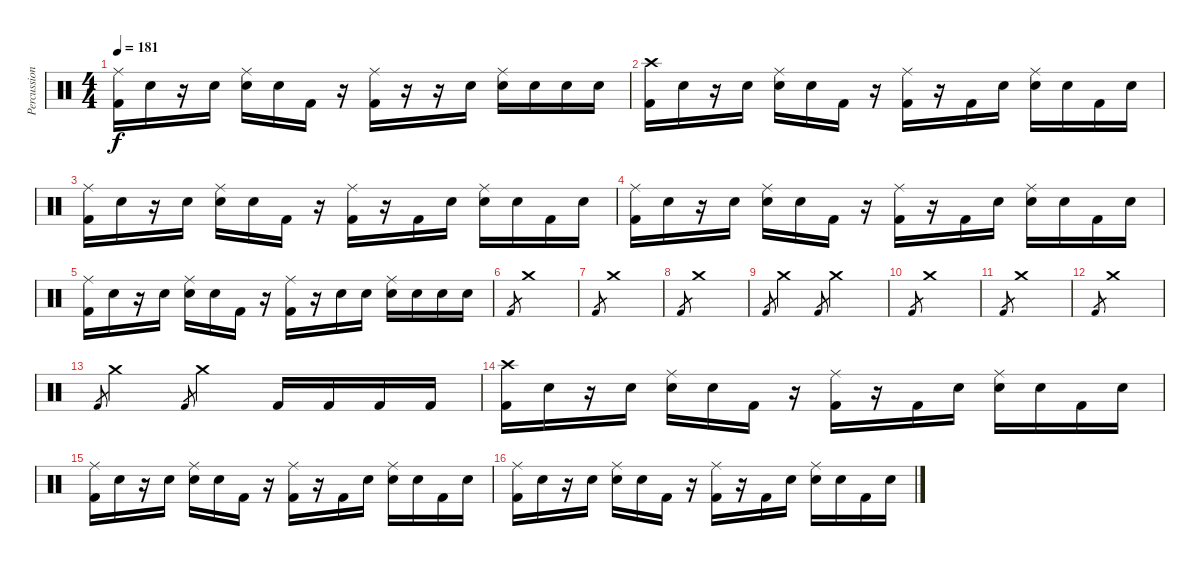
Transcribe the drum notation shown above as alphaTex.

\track ("Percussion" "Percussion") {instrument percussion}
\staff {score}
\articulation defaults
\ts (4 4)
\tempo 181
\clef neutral
\ks c
("Kick (hit) 2" "Ride (middle)").16{dy f} "Snare (hit)"{x}.16 r.16 "Snare (hit)"{x}.16 ("Electric Snare (hit)" "Ride (middle)").16 "Snare (hit)"{x}.16 "Kick (hit) 2".16 r.16 ("Kick (hit) 2" "Ride (middle)").16 r.16 r.16 "Snare (hit)"{x}.16 ("Electric Snare (hit)" "Ride (middle)").16 "Electric Snare (hit)".16 "Electric Snare (hit)".16 "Electric Snare (hit)".16 |
("Kick (hit) 2" "Crash high (hit)").16 "Snare (hit)"{x}.16 r.16 "Snare (hit)"{x}.16 ("Electric Snare (hit)" "Ride (middle)").16 "Snare (hit)"{x}.16 "Kick (hit) 2".16 r.16 ("Kick (hit) 2" "Ride (middle)").16 r.16 "Kick (hit) 2".16 "Snare (hit)"{x}.16 ("Electric Snare (hit)" "Ride (middle)").16 "Snare (hit)"{x}.16 "Kick (hit) 2".16 "Snare (hit)"{x}.16 |
("Kick (hit) 2" "Ride (middle)").16 "Snare (hit)"{x}.16 r.16 "Snare (hit)"{x}.16 ("Electric Snare (hit)" "Ride (middle)").16 "Snare (hit)"{x}.16 "Kick (hit) 2".16 r.16 ("Kick (hit) 2" "Ride (middle)").16 r.16 "Kick (hit) 2".16 "Snare (hit)"{x}.16 ("Electric Snare (hit)" "Ride (middle)").16 "Snare (hit)"{x}.16 "Kick (hit) 2".16 "Snare (hit)"{x}.16 |
("Kick (hit) 2" "Ride (middle)").16 "Snare (hit)"{x}.16 r.16 "Snare (hit)"{x}.16 ("Electric Snare (hit)" "Ride (middle)").16 "Snare (hit)"{x}.16 "Kick (hit) 2".16 r.16 ("Kick (hit) 2" "Ride (middle)").16 r.16 "Kick (hit) 2".16 "Snare (hit)"{x}.16 ("Electric Snare (hit)" "Ride (middle)").16 "Snare (hit)"{x}.16 "Kick (hit) 2".16 "Snare (hit)"{x}.16 |
("Kick (hit) 2" "Ride (middle)").16 "Snare (hit)"{x}.16 r.16 "Snare (hit)"{x}.16 ("Electric Snare (hit)" "Ride (middle)").16 "Snare (hit)"{x}.16 "Kick (hit) 2".16 r.16 ("Kick (hit) 2" "Ride (middle)").16 r.16 "Electric Snare (hit)".16 "Snare (hit)"{x}.16 ("Electric Snare (hit)" "Ride (middle)").16 "Electric Snare (hit)".16 "Electric Snare (hit)".16 "Electric Snare (hit)".16 |
"Kick (hit) 2".8{gr} "Crash medium (hit)".1 |
"Kick (hit) 2".8{gr} "Crash medium (hit)".1 |
"Kick (hit) 2".8{gr} "Crash medium (hit)".1 |
"Kick (hit) 2".8{gr} "Crash medium (hit)".2 "Kick (hit) 2"{h}.8{gr} "Crash medium (hit)".2 |
"Kick (hit) 2".8{gr} "Crash medium (hit)".1 |
"Kick (hit) 2".8{gr} "Crash medium (hit)".1 |
"Kick (hit) 2".8{gr} "Crash medium (hit)".1 |
"Kick (hit) 2".8{gr} "Crash medium (hit)".2 "Kick (hit) 2"{h}.8{gr} "Crash medium (hit)".4 "Kick (hit) 2".16 "Kick (hit) 2".16 "Kick (hit) 2".16 "Kick (hit) 2".16 |
("Kick (hit) 2" "Crash high (hit)").16 "Snare (hit)"{x}.16 r.16 "Snare (hit)"{x}.16 ("Electric Snare (hit)" "Ride (middle)").16 "Snare (hit)"{x}.16 "Kick (hit) 2".16 r.16 ("Kick (hit) 2" "Ride (middle)").16 r.16 "Kick (hit) 2".16 "Snare (hit)"{x}.16 ("Electric Snare (hit)" "Ride (middle)").16 "Snare (hit)"{x}.16 "Kick (hit) 2".16 "Snare (hit)"{x}.16 |
("Kick (hit) 2" "Ride (middle)").16 "Snare (hit)"{x}.16 r.16 "Snare (hit)"{x}.16 ("Electric Snare (hit)" "Ride (middle)").16 "Snare (hit)"{x}.16 "Kick (hit) 2".16 r.16 ("Kick (hit) 2" "Ride (middle)").16 r.16 "Kick (hit) 2".16 "Snare (hit)"{x}.16 ("Electric Snare (hit)" "Ride (middle)").16 "Snare (hit)"{x}.16 "Kick (hit) 2".16 "Snare (hit)"{x}.16 |
("Kick (hit) 2" "Ride (middle)").16 "Snare (hit)"{x}.16 r.16 "Snare (hit)"{x}.16 ("Electric Snare (hit)" "Ride (middle)").16 "Snare (hit)"{x}.16 "Kick (hit) 2".16 r.16 ("Kick (hit) 2" "Ride (middle)").16 r.16 "Kick (hit) 2".16 "Snare (hit)"{x}.16 ("Electric Snare (hit)" "Ride (middle)").16 "Snare (hit)"{x}.16 "Kick (hit) 2".16 "Snare (hit)"{x}.16
